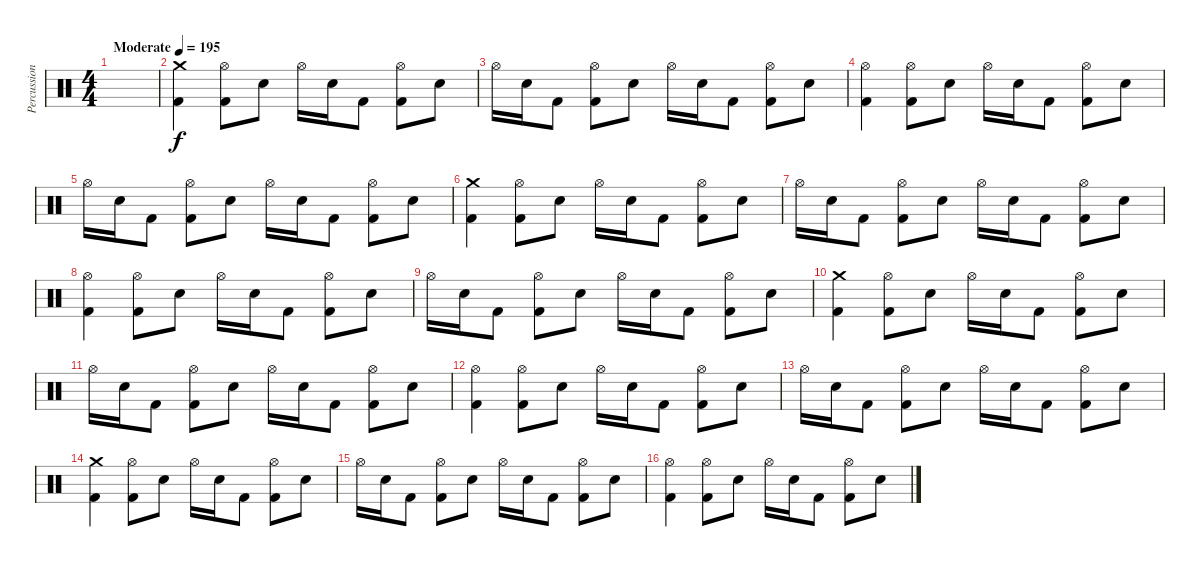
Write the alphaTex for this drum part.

\track ("Percussions" "Percussion") {instrument percussion}
\staff {score}
\articulation defaults
\ts (4 4)
\tempo (195 "Moderate")
\clef neutral
\ks c
|
("Kick (hit) 2" "Crash medium (hit)").4 ("Kick (hit) 2" "Hi-Hat (open)").8 "Electric Snare (hit)".8 "Hi-Hat (open)".16 "Electric Snare (hit)".16 "Kick (hit) 2".8 ("Kick (hit) 2" "Hi-Hat (open)").8 "Electric Snare (hit)".8 |
"Hi-Hat (open)".16 "Electric Snare (hit)".16 "Kick (hit) 2".8 ("Kick (hit) 2" "Hi-Hat (open)").8 "Electric Snare (hit)".8 "Hi-Hat (open)".16 "Electric Snare (hit)".16 "Kick (hit) 2".8 ("Kick (hit) 2" "Hi-Hat (open)").8 "Electric Snare (hit)".8 |
("Kick (hit) 2" "Hi-Hat (open)").4 ("Kick (hit) 2" "Hi-Hat (open)").8 "Electric Snare (hit)".8 "Hi-Hat (open)".16 "Electric Snare (hit)".16 "Kick (hit) 2".8 ("Kick (hit) 2" "Hi-Hat (open)").8 "Electric Snare (hit)".8 |
"Hi-Hat (open)".16 "Electric Snare (hit)".16 "Kick (hit) 2".8 ("Kick (hit) 2" "Hi-Hat (open)").8 "Electric Snare (hit)".8 "Hi-Hat (open)".16 "Electric Snare (hit)".16 "Kick (hit) 2".8 ("Kick (hit) 2" "Hi-Hat (open)").8 "Electric Snare (hit)".8 |
("Kick (hit) 2" "Crash medium (hit)").4 ("Kick (hit) 2" "Hi-Hat (open)").8 "Electric Snare (hit)".8 "Hi-Hat (open)".16 "Electric Snare (hit)".16 "Kick (hit) 2".8 ("Kick (hit) 2" "Hi-Hat (open)").8 "Electric Snare (hit)".8 |
"Hi-Hat (open)".16 "Electric Snare (hit)".16 "Kick (hit) 2".8 ("Kick (hit) 2" "Hi-Hat (open)").8 "Electric Snare (hit)".8 "Hi-Hat (open)".16 "Electric Snare (hit)".16 "Kick (hit) 2".8 ("Kick (hit) 2" "Hi-Hat (open)").8 "Electric Snare (hit)".8 |
("Kick (hit) 2" "Hi-Hat (open)").4 ("Kick (hit) 2" "Hi-Hat (open)").8 "Electric Snare (hit)".8 "Hi-Hat (open)".16 "Electric Snare (hit)".16 "Kick (hit) 2".8 ("Kick (hit) 2" "Hi-Hat (open)").8 "Electric Snare (hit)".8 |
"Hi-Hat (open)".16 "Electric Snare (hit)".16 "Kick (hit) 2".8 ("Kick (hit) 2" "Hi-Hat (open)").8 "Electric Snare (hit)".8 "Hi-Hat (open)".16 "Electric Snare (hit)".16 "Kick (hit) 2".8 ("Kick (hit) 2" "Hi-Hat (open)").8 "Electric Snare (hit)".8 |
("Kick (hit) 2" "Crash medium (hit)").4 ("Kick (hit) 2" "Hi-Hat (open)").8 "Electric Snare (hit)".8 "Hi-Hat (open)".16 "Electric Snare (hit)".16 "Kick (hit) 2".8 ("Kick (hit) 2" "Hi-Hat (open)").8 "Electric Snare (hit)".8 |
"Hi-Hat (open)".16 "Electric Snare (hit)".16 "Kick (hit) 2".8 ("Kick (hit) 2" "Hi-Hat (open)").8 "Electric Snare (hit)".8 "Hi-Hat (open)".16 "Electric Snare (hit)".16 "Kick (hit) 2".8 ("Kick (hit) 2" "Hi-Hat (open)").8 "Electric Snare (hit)".8 |
("Kick (hit) 2" "Hi-Hat (open)").4 ("Kick (hit) 2" "Hi-Hat (open)").8 "Electric Snare (hit)".8 "Hi-Hat (open)".16 "Electric Snare (hit)".16 "Kick (hit) 2".8 ("Kick (hit) 2" "Hi-Hat (open)").8 "Electric Snare (hit)".8 |
"Hi-Hat (open)".16 "Electric Snare (hit)".16 "Kick (hit) 2".8 ("Kick (hit) 2" "Hi-Hat (open)").8 "Electric Snare (hit)".8 "Hi-Hat (open)".16 "Electric Snare (hit)".16 "Kick (hit) 2".8 ("Kick (hit) 2" "Hi-Hat (open)").8 "Electric Snare (hit)".8 |
("Kick (hit) 2" "Crash medium (hit)").4 ("Kick (hit) 2" "Hi-Hat (open)").8 "Electric Snare (hit)".8 "Hi-Hat (open)".16 "Electric Snare (hit)".16 "Kick (hit) 2".8 ("Kick (hit) 2" "Hi-Hat (open)").8 "Electric Snare (hit)".8 |
"Hi-Hat (open)".16 "Electric Snare (hit)".16 "Kick (hit) 2".8 ("Kick (hit) 2" "Hi-Hat (open)").8 "Electric Snare (hit)".8 "Hi-Hat (open)".16 "Electric Snare (hit)".16 "Kick (hit) 2".8 ("Kick (hit) 2" "Hi-Hat (open)").8 "Electric Snare (hit)".8 |
("Kick (hit) 2" "Hi-Hat (open)").4 ("Kick (hit) 2" "Hi-Hat (open)").8 "Electric Snare (hit)".8 "Hi-Hat (open)".16 "Electric Snare (hit)".16 "Kick (hit) 2".8 ("Kick (hit) 2" "Hi-Hat (open)").8 "Electric Snare (hit)".8
